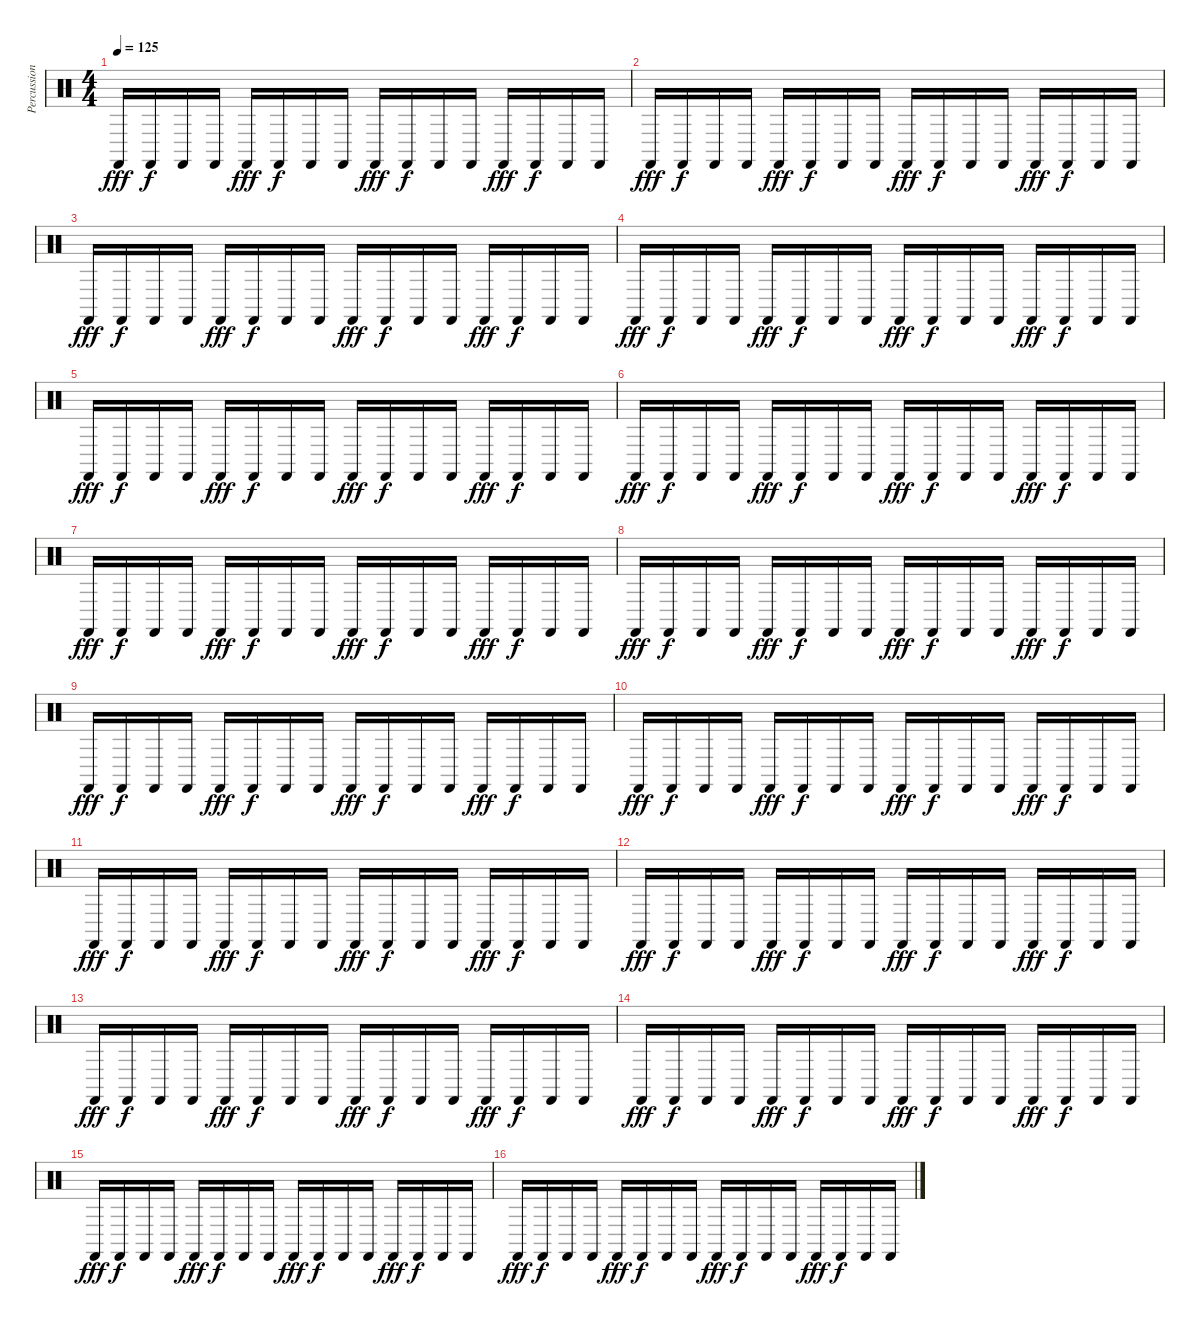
\track ("Percussion Boris" "Percussion") {instrument percussion}
\staff {score}
\articulation defaults
\ts (4 4)
\tempo 125
\clef neutral
\ks c "Castanets (hit)".16{dy fff} "Castanets (hit)".16{dy f} "Castanets (hit)".16 "Castanets (hit)".16 "Castanets (hit)".16{dy fff} "Castanets (hit)".16{dy f} "Castanets (hit)".16 "Castanets (hit)".16 "Castanets (hit)".16{dy fff} "Castanets (hit)".16{dy f} "Castanets (hit)".16 "Castanets (hit)".16 "Castanets (hit)".16{dy fff} "Castanets (hit)".16{dy f} "Castanets (hit)".16 "Castanets (hit)".16
|
"Castanets (hit)".16{dy fff} "Castanets (hit)".16{dy f} "Castanets (hit)".16 "Castanets (hit)".16 "Castanets (hit)".16{dy fff} "Castanets (hit)".16{dy f} "Castanets (hit)".16 "Castanets (hit)".16 "Castanets (hit)".16{dy fff} "Castanets (hit)".16{dy f} "Castanets (hit)".16 "Castanets (hit)".16 "Castanets (hit)".16{dy fff} "Castanets (hit)".16{dy f} "Castanets (hit)".16 "Castanets (hit)".16 |
"Castanets (hit)".16{dy fff} "Castanets (hit)".16{dy f} "Castanets (hit)".16 "Castanets (hit)".16 "Castanets (hit)".16{dy fff} "Castanets (hit)".16{dy f} "Castanets (hit)".16 "Castanets (hit)".16 "Castanets (hit)".16{dy fff} "Castanets (hit)".16{dy f} "Castanets (hit)".16 "Castanets (hit)".16 "Castanets (hit)".16{dy fff} "Castanets (hit)".16{dy f} "Castanets (hit)".16 "Castanets (hit)".16 |
"Castanets (hit)".16{dy fff} "Castanets (hit)".16{dy f} "Castanets (hit)".16 "Castanets (hit)".16 "Castanets (hit)".16{dy fff} "Castanets (hit)".16{dy f} "Castanets (hit)".16 "Castanets (hit)".16 "Castanets (hit)".16{dy fff} "Castanets (hit)".16{dy f} "Castanets (hit)".16 "Castanets (hit)".16 "Castanets (hit)".16{dy fff} "Castanets (hit)".16{dy f} "Castanets (hit)".16 "Castanets (hit)".16 |
"Castanets (hit)".16{dy fff} "Castanets (hit)".16{dy f} "Castanets (hit)".16 "Castanets (hit)".16 "Castanets (hit)".16{dy fff} "Castanets (hit)".16{dy f} "Castanets (hit)".16 "Castanets (hit)".16 "Castanets (hit)".16{dy fff} "Castanets (hit)".16{dy f} "Castanets (hit)".16 "Castanets (hit)".16 "Castanets (hit)".16{dy fff} "Castanets (hit)".16{dy f} "Castanets (hit)".16 "Castanets (hit)".16 |
"Castanets (hit)".16{dy fff} "Castanets (hit)".16{dy f} "Castanets (hit)".16 "Castanets (hit)".16 "Castanets (hit)".16{dy fff} "Castanets (hit)".16{dy f} "Castanets (hit)".16 "Castanets (hit)".16 "Castanets (hit)".16{dy fff} "Castanets (hit)".16{dy f} "Castanets (hit)".16 "Castanets (hit)".16 "Castanets (hit)".16{dy fff} "Castanets (hit)".16{dy f} "Castanets (hit)".16 "Castanets (hit)".16 |
"Castanets (hit)".16{dy fff} "Castanets (hit)".16{dy f} "Castanets (hit)".16 "Castanets (hit)".16 "Castanets (hit)".16{dy fff} "Castanets (hit)".16{dy f} "Castanets (hit)".16 "Castanets (hit)".16 "Castanets (hit)".16{dy fff} "Castanets (hit)".16{dy f} "Castanets (hit)".16 "Castanets (hit)".16 "Castanets (hit)".16{dy fff} "Castanets (hit)".16{dy f} "Castanets (hit)".16 "Castanets (hit)".16 |
"Castanets (hit)".16{dy fff} "Castanets (hit)".16{dy f} "Castanets (hit)".16 "Castanets (hit)".16 "Castanets (hit)".16{dy fff} "Castanets (hit)".16{dy f} "Castanets (hit)".16 "Castanets (hit)".16 "Castanets (hit)".16{dy fff} "Castanets (hit)".16{dy f} "Castanets (hit)".16 "Castanets (hit)".16 "Castanets (hit)".16{dy fff} "Castanets (hit)".16{dy f} "Castanets (hit)".16 "Castanets (hit)".16 |
"Castanets (hit)".16{dy fff} "Castanets (hit)".16{dy f} "Castanets (hit)".16 "Castanets (hit)".16 "Castanets (hit)".16{dy fff} "Castanets (hit)".16{dy f} "Castanets (hit)".16 "Castanets (hit)".16 "Castanets (hit)".16{dy fff} "Castanets (hit)".16{dy f} "Castanets (hit)".16 "Castanets (hit)".16 "Castanets (hit)".16{dy fff} "Castanets (hit)".16{dy f} "Castanets (hit)".16 "Castanets (hit)".16 |
"Castanets (hit)".16{dy fff} "Castanets (hit)".16{dy f} "Castanets (hit)".16 "Castanets (hit)".16 "Castanets (hit)".16{dy fff} "Castanets (hit)".16{dy f} "Castanets (hit)".16 "Castanets (hit)".16 "Castanets (hit)".16{dy fff} "Castanets (hit)".16{dy f} "Castanets (hit)".16 "Castanets (hit)".16 "Castanets (hit)".16{dy fff} "Castanets (hit)".16{dy f} "Castanets (hit)".16 "Castanets (hit)".16 |
"Castanets (hit)".16{dy fff} "Castanets (hit)".16{dy f} "Castanets (hit)".16 "Castanets (hit)".16 "Castanets (hit)".16{dy fff} "Castanets (hit)".16{dy f} "Castanets (hit)".16 "Castanets (hit)".16 "Castanets (hit)".16{dy fff} "Castanets (hit)".16{dy f} "Castanets (hit)".16 "Castanets (hit)".16 "Castanets (hit)".16{dy fff} "Castanets (hit)".16{dy f} "Castanets (hit)".16 "Castanets (hit)".16 |
"Castanets (hit)".16{dy fff} "Castanets (hit)".16{dy f} "Castanets (hit)".16 "Castanets (hit)".16 "Castanets (hit)".16{dy fff} "Castanets (hit)".16{dy f} "Castanets (hit)".16 "Castanets (hit)".16 "Castanets (hit)".16{dy fff} "Castanets (hit)".16{dy f} "Castanets (hit)".16 "Castanets (hit)".16 "Castanets (hit)".16{dy fff} "Castanets (hit)".16{dy f} "Castanets (hit)".16 "Castanets (hit)".16 |
"Castanets (hit)".16{dy fff} "Castanets (hit)".16{dy f} "Castanets (hit)".16 "Castanets (hit)".16 "Castanets (hit)".16{dy fff} "Castanets (hit)".16{dy f} "Castanets (hit)".16 "Castanets (hit)".16 "Castanets (hit)".16{dy fff} "Castanets (hit)".16{dy f} "Castanets (hit)".16 "Castanets (hit)".16 "Castanets (hit)".16{dy fff} "Castanets (hit)".16{dy f} "Castanets (hit)".16 "Castanets (hit)".16 |
"Castanets (hit)".16{dy fff} "Castanets (hit)".16{dy f} "Castanets (hit)".16 "Castanets (hit)".16 "Castanets (hit)".16{dy fff} "Castanets (hit)".16{dy f} "Castanets (hit)".16 "Castanets (hit)".16 "Castanets (hit)".16{dy fff} "Castanets (hit)".16{dy f} "Castanets (hit)".16 "Castanets (hit)".16 "Castanets (hit)".16{dy fff} "Castanets (hit)".16{dy f} "Castanets (hit)".16 "Castanets (hit)".16 |
"Castanets (hit)".16{dy fff} "Castanets (hit)".16{dy f} "Castanets (hit)".16 "Castanets (hit)".16 "Castanets (hit)".16{dy fff} "Castanets (hit)".16{dy f} "Castanets (hit)".16 "Castanets (hit)".16 "Castanets (hit)".16{dy fff} "Castanets (hit)".16{dy f} "Castanets (hit)".16 "Castanets (hit)".16 "Castanets (hit)".16{dy fff} "Castanets (hit)".16{dy f} "Castanets (hit)".16 "Castanets (hit)".16 |
"Castanets (hit)".16{dy fff} "Castanets (hit)".16{dy f} "Castanets (hit)".16 "Castanets (hit)".16 "Castanets (hit)".16{dy fff} "Castanets (hit)".16{dy f} "Castanets (hit)".16 "Castanets (hit)".16 "Castanets (hit)".16{dy fff} "Castanets (hit)".16{dy f} "Castanets (hit)".16 "Castanets (hit)".16 "Castanets (hit)".16{dy fff} "Castanets (hit)".16{dy f} "Castanets (hit)".16 "Castanets (hit)".16
